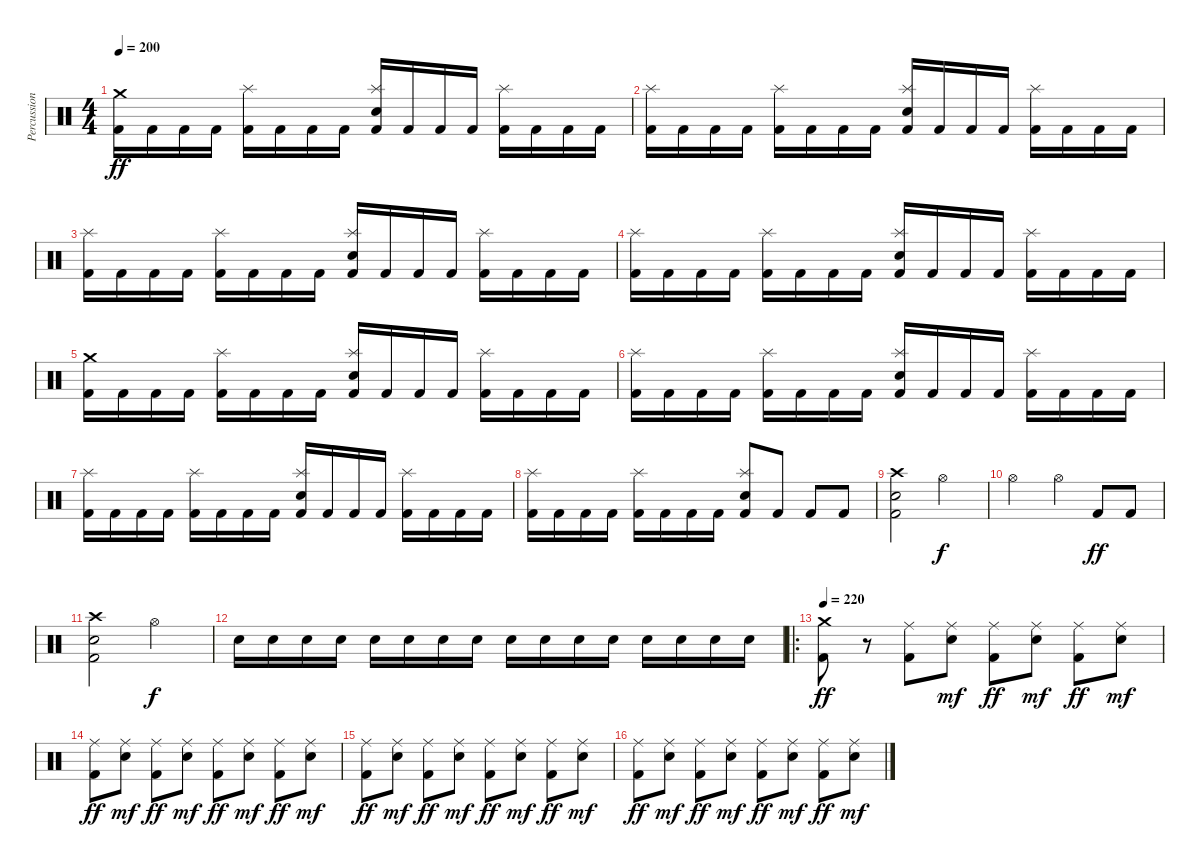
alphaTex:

\track ("Percussion" "Percussion") {instrument percussion}
\staff {score}
\articulation defaults
\ts (4 4)
\tempo 200
\clef neutral
\ks c
("Crash medium (hit)" "Kick (hit) 2").16{dy ff} "Kick (hit) 2".16 "Kick (hit) 2".16 "Kick (hit) 2".16 ("Splash (hit)" "Kick (hit) 2").16 "Kick (hit) 2".16 "Kick (hit) 2".16 "Kick (hit) 2".16 ("Splash (hit)" "Snare (hit) 2" "Kick (hit) 2").16 "Kick (hit) 2".16 "Kick (hit) 2".16 "Kick (hit) 2".16 ("Splash (hit)" "Kick (hit) 2").16 "Kick (hit) 2".16 "Kick (hit) 2".16 "Kick (hit) 2".16 |
("Splash (hit)" "Kick (hit) 2").16 "Kick (hit) 2".16 "Kick (hit) 2".16 "Kick (hit) 2".16 ("Splash (hit)" "Kick (hit) 2").16 "Kick (hit) 2".16 "Kick (hit) 2".16 "Kick (hit) 2".16 ("Splash (hit)" "Snare (hit) 2" "Kick (hit) 2").16 "Kick (hit) 2".16 "Kick (hit) 2".16 "Kick (hit) 2".16 ("Splash (hit)" "Kick (hit) 2").16 "Kick (hit) 2".16 "Kick (hit) 2".16 "Kick (hit) 2".16 |
("Splash (hit)" "Kick (hit) 2").16 "Kick (hit) 2".16 "Kick (hit) 2".16 "Kick (hit) 2".16 ("Splash (hit)" "Kick (hit) 2").16 "Kick (hit) 2".16 "Kick (hit) 2".16 "Kick (hit) 2".16 ("Splash (hit)" "Snare (hit) 2" "Kick (hit) 2").16 "Kick (hit) 2".16 "Kick (hit) 2".16 "Kick (hit) 2".16 ("Splash (hit)" "Kick (hit) 2").16 "Kick (hit) 2".16 "Kick (hit) 2".16 "Kick (hit) 2".16 |
("Splash (hit)" "Kick (hit) 2").16 "Kick (hit) 2".16 "Kick (hit) 2".16 "Kick (hit) 2".16 ("Splash (hit)" "Kick (hit) 2").16 "Kick (hit) 2".16 "Kick (hit) 2".16 "Kick (hit) 2".16 ("Splash (hit)" "Snare (hit) 2" "Kick (hit) 2").16 "Kick (hit) 2".16 "Kick (hit) 2".16 "Kick (hit) 2".16 ("Splash (hit)" "Kick (hit) 2").16 "Kick (hit) 2".16 "Kick (hit) 2".16 "Kick (hit) 2".16 |
("Crash medium (hit)" "Kick (hit) 2").16 "Kick (hit) 2".16 "Kick (hit) 2".16 "Kick (hit) 2".16 ("Splash (hit)" "Kick (hit) 2").16 "Kick (hit) 2".16 "Kick (hit) 2".16 "Kick (hit) 2".16 ("Splash (hit)" "Snare (hit) 2" "Kick (hit) 2").16 "Kick (hit) 2".16 "Kick (hit) 2".16 "Kick (hit) 2".16 ("Splash (hit)" "Kick (hit) 2").16 "Kick (hit) 2".16 "Kick (hit) 2".16 "Kick (hit) 2".16 |
("Splash (hit)" "Kick (hit) 2").16 "Kick (hit) 2".16 "Kick (hit) 2".16 "Kick (hit) 2".16 ("Splash (hit)" "Kick (hit) 2").16 "Kick (hit) 2".16 "Kick (hit) 2".16 "Kick (hit) 2".16 ("Splash (hit)" "Snare (hit) 2" "Kick (hit) 2").16 "Kick (hit) 2".16 "Kick (hit) 2".16 "Kick (hit) 2".16 ("Splash (hit)" "Kick (hit) 2").16 "Kick (hit) 2".16 "Kick (hit) 2".16 "Kick (hit) 2".16 |
("Splash (hit)" "Kick (hit) 2").16 "Kick (hit) 2".16 "Kick (hit) 2".16 "Kick (hit) 2".16 ("Splash (hit)" "Kick (hit) 2").16 "Kick (hit) 2".16 "Kick (hit) 2".16 "Kick (hit) 2".16 ("Splash (hit)" "Snare (hit) 2" "Kick (hit) 2").16 "Kick (hit) 2".16 "Kick (hit) 2".16 "Kick (hit) 2".16 ("Splash (hit)" "Kick (hit) 2").16 "Kick (hit) 2".16 "Kick (hit) 2".16 "Kick (hit) 2".16 |
("Splash (hit)" "Kick (hit) 2").16 "Kick (hit) 2".16 "Kick (hit) 2".16 "Kick (hit) 2".16 ("Splash (hit)" "Kick (hit) 2").16 "Kick (hit) 2".16 "Kick (hit) 2".16 "Kick (hit) 2".16 ("Splash (hit)" "Snare (hit) 2" "Kick (hit) 2").8 "Kick (hit) 2".8 "Kick (hit) 2".8 "Kick (hit) 2".8 |
("Crash high (hit)" "Snare (hit) 2" "Kick (hit) 2").2 "Hi-Hat (open)".2{dy f} |
"Hi-Hat (open)".2 "Hi-Hat (open)".4 "Kick (hit) 2".8{dy ff} "Kick (hit) 2".8 |
("Crash high (hit)" "Snare (hit) 2" "Kick (hit) 2").2 "Hi-Hat (open)".2{dy f} |
"Snare (hit) 2".16 "Snare (hit) 2".16 "Snare (hit) 2".16 "Snare (hit) 2".16 "Snare (hit) 2".16 "Snare (hit) 2".16 "Snare (hit) 2".16 "Snare (hit) 2".16 "Snare (hit) 2".16 "Snare (hit) 2".16 "Snare (hit) 2".16 "Snare (hit) 2".16 "Snare (hit) 2".16 "Snare (hit) 2".16 "Snare (hit) 2".16 "Snare (hit) 2".16 |
\ro
\section ("" "")
\tempo 220
("Crash medium (hit)" "Kick (hit) 2").8{dy ff} r.8 ("Ride (middle)" "Kick (hit) 2").8 ("Ride (middle)" "Snare (hit) 2").8{dy mf} ("Ride (middle)" "Kick (hit) 2").8{dy ff} ("Ride (middle)" "Snare (hit) 2").8{dy mf} ("Ride (middle)" "Kick (hit) 2").8{dy ff} ("Ride (middle)" "Snare (hit) 2").8{dy mf} |
("Ride (middle)" "Kick (hit) 2").8{dy ff} ("Ride (middle)" "Snare (hit) 2").8{dy mf} ("Ride (middle)" "Kick (hit) 2").8{dy ff} ("Ride (middle)" "Snare (hit) 2").8{dy mf} ("Ride (middle)" "Kick (hit) 2").8{dy ff} ("Ride (middle)" "Snare (hit) 2").8{dy mf} ("Ride (middle)" "Kick (hit) 2").8{dy ff} ("Ride (middle)" "Snare (hit) 2").8{dy mf} |
("Ride (middle)" "Kick (hit) 2").8{dy ff} ("Ride (middle)" "Snare (hit) 2").8{dy mf} ("Ride (middle)" "Kick (hit) 2").8{dy ff} ("Ride (middle)" "Snare (hit) 2").8{dy mf} ("Ride (middle)" "Kick (hit) 2").8{dy ff} ("Ride (middle)" "Snare (hit) 2").8{dy mf} ("Ride (middle)" "Kick (hit) 2").8{dy ff} ("Ride (middle)" "Snare (hit) 2").8{dy mf} |
("Ride (middle)" "Kick (hit) 2").8{dy ff} ("Ride (middle)" "Snare (hit) 2").8{dy mf} ("Ride (middle)" "Kick (hit) 2").8{dy ff} ("Ride (middle)" "Snare (hit) 2").8{dy mf} ("Ride (middle)" "Kick (hit) 2").8{dy ff} ("Ride (middle)" "Snare (hit) 2").8{dy mf} ("Ride (middle)" "Kick (hit) 2").8{dy ff} ("Ride (middle)" "Snare (hit) 2").8{dy mf}
